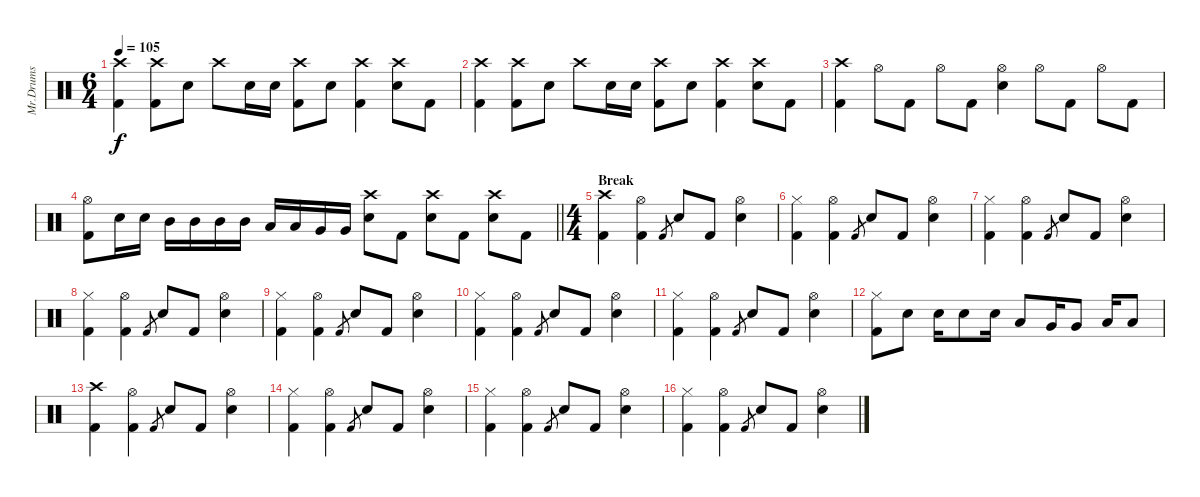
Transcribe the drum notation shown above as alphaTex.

\track ("Mr.Drums" "Mr.Drums") {instrument percussion}
\staff {score}
\articulation defaults
\ts (6 4)
\tempo 105
\clef neutral
\ks c
("Crash high (hit)" "Kick (hit) 2").4{dy f} ("Crash high (hit)" "Kick (hit) 2").8 "Electric Snare (hit)".8 "Crash high (hit)".8 "Electric Snare (hit)".16 "Electric Snare (hit)".16 ("Crash high (hit)" "Kick (hit) 2").8 "Electric Snare (hit)".8 ("Crash high (hit)" "Kick (hit) 2").4 ("Crash high (hit)" "Electric Snare (hit)").8 "Kick (hit) 2".8 |
("Crash high (hit)" "Kick (hit) 2").4 ("Crash high (hit)" "Kick (hit) 2").8 "Electric Snare (hit)".8 "Crash high (hit)".8 "Electric Snare (hit)".16 "Electric Snare (hit)".16 ("Crash high (hit)" "Kick (hit) 2").8 "Electric Snare (hit)".8 ("Crash high (hit)" "Kick (hit) 2").4 ("Crash high (hit)" "Electric Snare (hit)").8 "Kick (hit) 2".8 |
("Crash high (hit)" "Kick (hit) 2").4 "Hi-Hat (open)".8 "Kick (hit) 2".8 "Hi-Hat (open)".8 "Kick (hit) 2".8 ("Hi-Hat (open)" "Electric Snare (hit)").4 "Hi-Hat (open)".8 "Kick (hit) 2".8 "Hi-Hat (open)".8 "Kick (hit) 2".8 |
\barLineRight lightlight
("Hi-Hat (open)" "Kick (hit) 2").8 "Electric Snare (hit)".16 "Electric Snare (hit)".16 "Mid Tom (hit)".16 "Mid Tom (hit)".16 "Mid Tom (hit)".16 "Mid Tom (hit)".16 "Low Tom (hit)".16 "Low Tom (hit)".16 "Very Low Tom (hit)".16 "Very Low Tom (hit)".16 ("Crash high (hit)" "Electric Snare (hit)").8 "Kick (hit) 2".8 ("Crash high (hit)" "Electric Snare (hit)").8 "Kick (hit) 2".8 ("Crash high (hit)" "Electric Snare (hit)").8 "Kick (hit) 2".8 |
\ts (4 4)
\section ("" "Break")
("Crash high (hit)" "Kick (hit) 2").4 ("Hi-Hat (open)" "Kick (hit) 2").4 "Kick (hit) 2".8{gr} "Electric Snare (hit)".8 "Kick (hit) 2".8 ("Hi-Hat (open)" "Electric Snare (hit)").4 |
("Hi-Hat (closed)" "Kick (hit) 2").4 ("Hi-Hat (open)" "Kick (hit) 2").4 "Kick (hit) 2".8{gr} "Electric Snare (hit)".8 "Kick (hit) 2".8 ("Hi-Hat (open)" "Electric Snare (hit)").4 |
("Hi-Hat (closed)" "Kick (hit) 2").4 ("Hi-Hat (open)" "Kick (hit) 2").4 "Kick (hit) 2".8{gr} "Electric Snare (hit)".8 "Kick (hit) 2".8 ("Hi-Hat (open)" "Electric Snare (hit)").4 |
("Hi-Hat (closed)" "Kick (hit) 2").4 ("Hi-Hat (open)" "Kick (hit) 2").4 "Kick (hit) 2".8{gr} "Electric Snare (hit)".8 "Kick (hit) 2".8 ("Hi-Hat (open)" "Electric Snare (hit)").4 |
("Hi-Hat (closed)" "Kick (hit) 2").4 ("Hi-Hat (open)" "Kick (hit) 2").4 "Kick (hit) 2".8{gr} "Electric Snare (hit)".8 "Kick (hit) 2".8 ("Hi-Hat (open)" "Electric Snare (hit)").4 |
("Hi-Hat (closed)" "Kick (hit) 2").4 ("Hi-Hat (open)" "Kick (hit) 2").4 "Kick (hit) 2".8{gr} "Electric Snare (hit)".8 "Kick (hit) 2".8 ("Hi-Hat (open)" "Electric Snare (hit)").4 |
("Hi-Hat (closed)" "Kick (hit) 2").4 ("Hi-Hat (open)" "Kick (hit) 2").4 "Kick (hit) 2".8{gr} "Electric Snare (hit)".8 "Kick (hit) 2".8 ("Hi-Hat (open)" "Electric Snare (hit)").4 |
("Hi-Hat (closed)" "Kick (hit) 2").8 "Electric Snare (hit)".8 "Electric Snare (hit)".16 "Electric Snare (hit)".8 "Electric Snare (hit)".16 "Low Tom (hit)".8 "Very Low Tom (hit)".16 "Very Low Tom (hit)".8 "Low Floor Tom (hit)".16 "Low Floor Tom (hit)".8 |
("Crash high (hit)" "Kick (hit) 2").4 ("Hi-Hat (open)" "Kick (hit) 2").4 "Kick (hit) 2".8{gr} "Electric Snare (hit)".8 "Kick (hit) 2".8 ("Hi-Hat (open)" "Electric Snare (hit)").4 |
("Hi-Hat (closed)" "Kick (hit) 2").4 ("Hi-Hat (open)" "Kick (hit) 2").4 "Kick (hit) 2".8{gr} "Electric Snare (hit)".8 "Kick (hit) 2".8 ("Hi-Hat (open)" "Electric Snare (hit)").4 |
("Hi-Hat (closed)" "Kick (hit) 2").4 ("Hi-Hat (open)" "Kick (hit) 2").4 "Kick (hit) 2".8{gr} "Electric Snare (hit)".8 "Kick (hit) 2".8 ("Hi-Hat (open)" "Electric Snare (hit)").4 |
("Hi-Hat (closed)" "Kick (hit) 2").4 ("Hi-Hat (open)" "Kick (hit) 2").4 "Kick (hit) 2".8{gr} "Electric Snare (hit)".8 "Kick (hit) 2".8 ("Hi-Hat (open)" "Electric Snare (hit)").4
